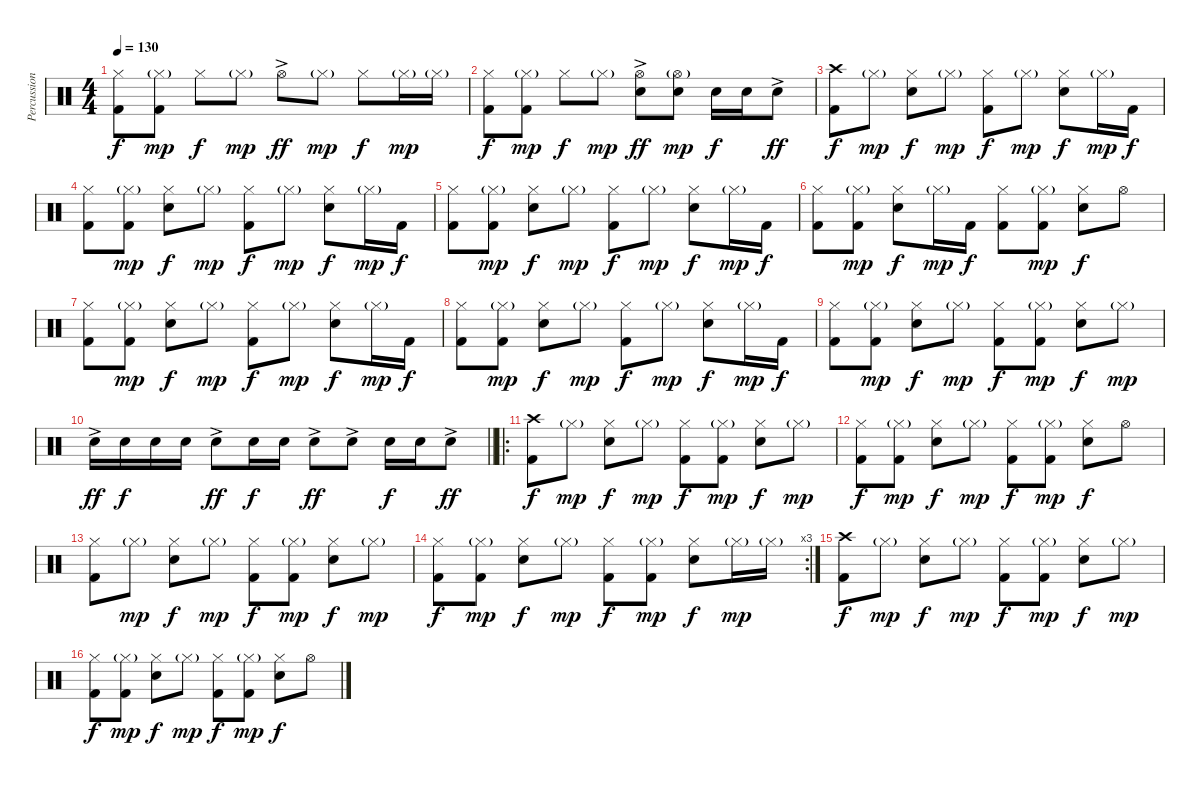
\track ("Percussion" "Percussion") {instrument percussion}
\staff {score}
\articulation defaults
\ts (4 4)
\tempo 130
\clef neutral
\ks c
("Hi-Hat (closed)" "Kick (hit) 2").8{dy f} ("Hi-Hat (closed)"{g} "Kick (hit) 2").8{dy mp} "Hi-Hat (closed)".8{dy f} "Hi-Hat (closed)"{g}.8{dy mp} "Hi-Hat (open)"{ac}.8{dy ff} "Hi-Hat (closed)"{g}.8{dy mp} "Hi-Hat (closed)".8{dy f} "Hi-Hat (closed)"{g}.16{dy mp} "Hi-Hat (closed)"{g}.16 |
("Hi-Hat (closed)" "Kick (hit) 2").8{dy f} ("Hi-Hat (closed)"{g} "Kick (hit) 2").8{dy mp} "Hi-Hat (closed)".8{dy f} "Hi-Hat (closed)"{g}.8{dy mp} ("Hi-Hat (open)"{ac} "Electric Snare (hit)").8{dy ff} ("Hi-Hat (open)"{g} "Electric Snare (hit)").8{dy mp} "Electric Snare (hit)".16{dy f} "Electric Snare (hit)".16 "Electric Snare (hit)"{ac}.8{dy ff} |
("Crash high (hit)" "Kick (hit) 2").8{dy f} "Hi-Hat (closed)"{g}.8{dy mp} ("Hi-Hat (closed)" "Electric Snare (hit)").8{dy f} "Hi-Hat (closed)"{g}.8{dy mp} ("Hi-Hat (closed)" "Kick (hit) 2").8{dy f} "Hi-Hat (closed)"{g}.8{dy mp} ("Hi-Hat (closed)" "Electric Snare (hit)").8{dy f} "Hi-Hat (closed)"{g}.16{dy mp} "Kick (hit) 2".16{dy f} |
("Hi-Hat (closed)" "Kick (hit) 2").8 ("Hi-Hat (closed)"{g} "Kick (hit) 2").8{dy mp} ("Hi-Hat (closed)" "Electric Snare (hit)").8{dy f} "Hi-Hat (closed)"{g}.8{dy mp} ("Hi-Hat (closed)" "Kick (hit) 2").8{dy f} "Hi-Hat (closed)"{g}.8{dy mp} ("Hi-Hat (closed)" "Electric Snare (hit)").8{dy f} "Hi-Hat (closed)"{g}.16{dy mp} "Kick (hit) 2".16{dy f} |
("Hi-Hat (closed)" "Kick (hit) 2").8 ("Hi-Hat (closed)"{g} "Kick (hit) 2").8{dy mp} ("Hi-Hat (closed)" "Electric Snare (hit)").8{dy f} "Hi-Hat (closed)"{g}.8{dy mp} ("Hi-Hat (closed)" "Kick (hit) 2").8{dy f} "Hi-Hat (closed)"{g}.8{dy mp} ("Hi-Hat (closed)" "Electric Snare (hit)").8{dy f} "Hi-Hat (closed)"{g}.16{dy mp} "Kick (hit) 2".16{dy f} |
("Hi-Hat (closed)" "Kick (hit) 2").8 ("Hi-Hat (closed)"{g} "Kick (hit) 2").8{dy mp} ("Hi-Hat (closed)" "Electric Snare (hit)").8{dy f} "Hi-Hat (closed)"{g}.16{dy mp} "Kick (hit) 2".16{dy f} ("Hi-Hat (closed)" "Kick (hit) 2").8 ("Hi-Hat (closed)"{g} "Kick (hit) 2").8{dy mp} ("Hi-Hat (closed)" "Electric Snare (hit)").8{dy f} "Hi-Hat (open)".8 |
("Hi-Hat (closed)" "Kick (hit) 2").8 ("Hi-Hat (closed)"{g} "Kick (hit) 2").8{dy mp} ("Hi-Hat (closed)" "Electric Snare (hit)").8{dy f} "Hi-Hat (closed)"{g}.8{dy mp} ("Hi-Hat (closed)" "Kick (hit) 2").8{dy f} "Hi-Hat (closed)"{g}.8{dy mp} ("Hi-Hat (closed)" "Electric Snare (hit)").8{dy f} "Hi-Hat (closed)"{g}.16{dy mp} "Kick (hit) 2".16{dy f} |
("Hi-Hat (closed)" "Kick (hit) 2").8 ("Hi-Hat (closed)"{g} "Kick (hit) 2").8{dy mp} ("Hi-Hat (closed)" "Electric Snare (hit)").8{dy f} "Hi-Hat (closed)"{g}.8{dy mp} ("Hi-Hat (closed)" "Kick (hit) 2").8{dy f} "Hi-Hat (closed)"{g}.8{dy mp} ("Hi-Hat (closed)" "Electric Snare (hit)").8{dy f} "Hi-Hat (closed)"{g}.16{dy mp} "Kick (hit) 2".16{dy f} |
("Hi-Hat (closed)" "Kick (hit) 2").8 ("Hi-Hat (closed)"{g} "Kick (hit) 2").8{dy mp} ("Hi-Hat (closed)" "Electric Snare (hit)").8{dy f} "Hi-Hat (closed)"{g}.8{dy mp} ("Hi-Hat (closed)" "Kick (hit) 2").8{dy f} ("Hi-Hat (closed)"{g} "Kick (hit) 2").8{dy mp} ("Hi-Hat (closed)" "Electric Snare (hit)").8{dy f} "Hi-Hat (closed)"{g}.8{dy mp} |
\barLineRight lightlight "Electric Snare (hit)"{ac}.16{dy ff} "Electric Snare (hit)".16{dy f} "Electric Snare (hit)".16 "Electric Snare (hit)".16 "Electric Snare (hit)"{ac}.8{dy ff} "Electric Snare (hit)".16{dy f} "Electric Snare (hit)".16 "Electric Snare (hit)"{ac}.8{dy ff} "Electric Snare (hit)"{ac}.8 "Electric Snare (hit)".16{dy f} "Electric Snare (hit)".16 "Electric Snare (hit)"{ac}.8{dy ff}
|
\ro
("Crash high (hit)" "Kick (hit) 2").8{dy f} "Hi-Hat (closed)"{g}.8{dy mp} ("Hi-Hat (closed)" "Electric Snare (hit)").8{dy f} "Hi-Hat (closed)"{g}.8{dy mp} ("Hi-Hat (closed)" "Kick (hit) 2").8{dy f} ("Hi-Hat (closed)"{g} "Kick (hit) 2").8{dy mp} ("Hi-Hat (closed)" "Electric Snare (hit)").8{dy f} "Hi-Hat (closed)"{g}.8{dy mp} |
("Hi-Hat (closed)" "Kick (hit) 2").8{dy f} ("Hi-Hat (closed)"{g} "Kick (hit) 2").8{dy mp} ("Hi-Hat (closed)" "Electric Snare (hit)").8{dy f} "Hi-Hat (closed)"{g}.8{dy mp} ("Hi-Hat (closed)" "Kick (hit) 2").8{dy f} ("Hi-Hat (closed)"{g} "Kick (hit) 2").8{dy mp} ("Hi-Hat (closed)" "Electric Snare (hit)").8{dy f} "Hi-Hat (open)".8 |
("Hi-Hat (closed)" "Kick (hit) 2").8 "Hi-Hat (closed)"{g}.8{dy mp} ("Hi-Hat (closed)" "Electric Snare (hit)").8{dy f} "Hi-Hat (closed)"{g}.8{dy mp} ("Hi-Hat (closed)" "Kick (hit) 2").8{dy f} ("Hi-Hat (closed)"{g} "Kick (hit) 2").8{dy mp} ("Hi-Hat (closed)" "Electric Snare (hit)").8{dy f} "Hi-Hat (closed)"{g}.8{dy mp} |
\rc 3
("Hi-Hat (closed)" "Kick (hit) 2").8{dy f} ("Hi-Hat (closed)"{g} "Kick (hit) 2").8{dy mp} ("Hi-Hat (closed)" "Electric Snare (hit)").8{dy f} "Hi-Hat (closed)"{g}.8{dy mp} ("Hi-Hat (closed)" "Kick (hit) 2").8{dy f} ("Hi-Hat (closed)"{g} "Kick (hit) 2").8{dy mp} ("Hi-Hat (closed)" "Electric Snare (hit)").8{dy f} "Hi-Hat (closed)"{g}.16{dy mp} "Hi-Hat (closed)"{g}.16 |
("Crash high (hit)" "Kick (hit) 2").8{dy f} "Hi-Hat (closed)"{g}.8{dy mp} ("Hi-Hat (closed)" "Electric Snare (hit)").8{dy f} "Hi-Hat (closed)"{g}.8{dy mp} ("Hi-Hat (closed)" "Kick (hit) 2").8{dy f} ("Hi-Hat (closed)"{g} "Kick (hit) 2").8{dy mp} ("Hi-Hat (closed)" "Electric Snare (hit)").8{dy f} "Hi-Hat (closed)"{g}.8{dy mp} |
("Hi-Hat (closed)" "Kick (hit) 2").8{dy f} ("Hi-Hat (closed)"{g} "Kick (hit) 2").8{dy mp} ("Hi-Hat (closed)" "Electric Snare (hit)").8{dy f} "Hi-Hat (closed)"{g}.8{dy mp} ("Hi-Hat (closed)" "Kick (hit) 2").8{dy f} ("Hi-Hat (closed)"{g} "Kick (hit) 2").8{dy mp} ("Hi-Hat (closed)" "Electric Snare (hit)").8{dy f} "Hi-Hat (open)".8
